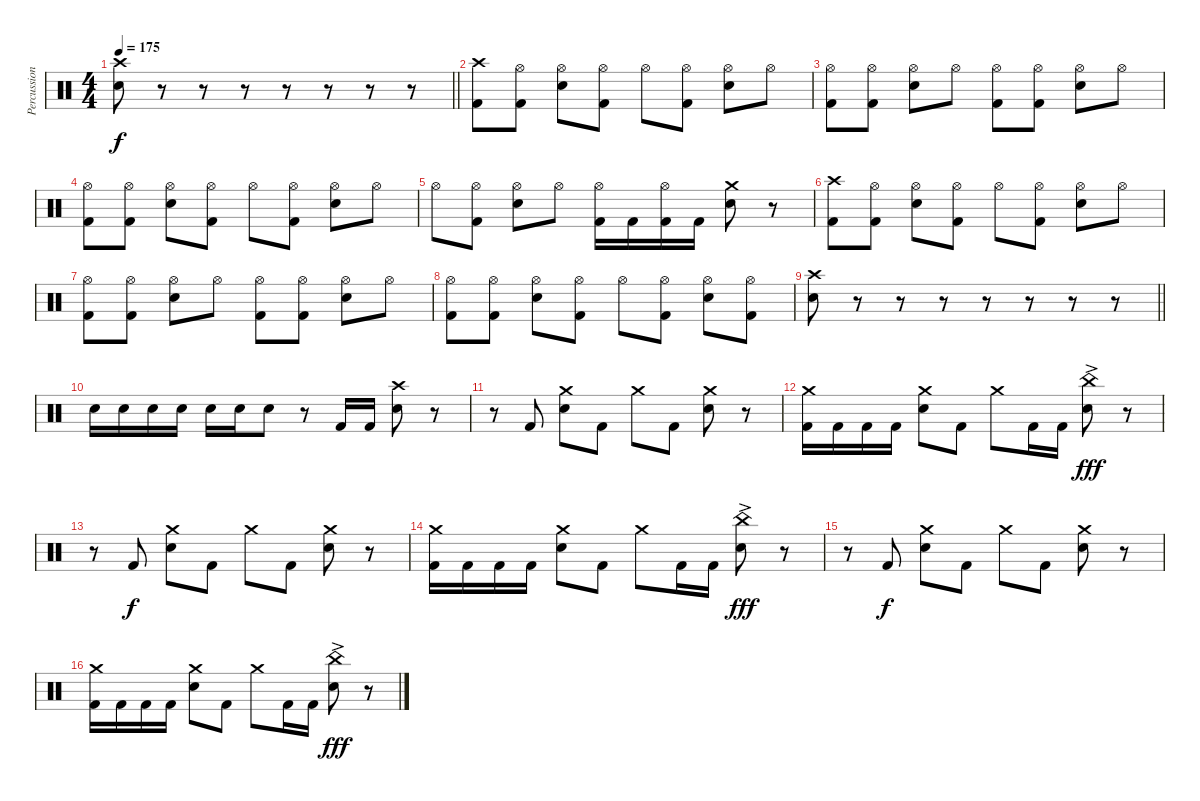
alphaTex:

\track ("Percussion (Moose)" "Percussion") {instrument percussion}
\staff {score}
\articulation defaults
\ts (4 4)
\tempo 175
\clef neutral
\barLineRight lightlight
\ks c
("Crash high (hit)" "Electric Snare (hit)").8{dy f} r.8 r.8 r.8 r.8 r.8 r.8 r.8 |
("Crash high (hit)" "Kick (hit) 2").8 ("Hi-Hat (open)" "Kick (hit) 2").8 ("Hi-Hat (open)" "Electric Snare (hit)").8 ("Hi-Hat (open)" "Kick (hit) 2").8 "Hi-Hat (open)".8 ("Hi-Hat (open)" "Kick (hit) 2").8 ("Hi-Hat (open)" "Electric Snare (hit)").8 "Hi-Hat (open)".8 |
("Hi-Hat (open)" "Kick (hit) 2").8 ("Hi-Hat (open)" "Kick (hit) 2").8 ("Hi-Hat (open)" "Electric Snare (hit)").8 "Hi-Hat (open)".8 ("Hi-Hat (open)" "Kick (hit) 2").8 ("Hi-Hat (open)" "Kick (hit) 2").8 ("Hi-Hat (open)" "Electric Snare (hit)").8 "Hi-Hat (open)".8 |
("Hi-Hat (open)" "Kick (hit) 2").8 ("Hi-Hat (open)" "Kick (hit) 2").8 ("Hi-Hat (open)" "Electric Snare (hit)").8 ("Hi-Hat (open)" "Kick (hit) 2").8 "Hi-Hat (open)".8 ("Hi-Hat (open)" "Kick (hit) 2").8 ("Hi-Hat (open)" "Electric Snare (hit)").8 "Hi-Hat (open)".8 |
"Hi-Hat (open)".8 ("Hi-Hat (open)" "Kick (hit) 2").8 ("Hi-Hat (open)" "Electric Snare (hit)").8 "Hi-Hat (open)".8 ("Hi-Hat (open)" "Kick (hit) 2").16 "Kick (hit) 2".16 ("Hi-Hat (open)" "Kick (hit) 2").16 "Kick (hit) 2".16 ("Crash medium (hit)" "Electric Snare (hit)").8 r.8 |
("Crash high (hit)" "Kick (hit) 2").8 ("Hi-Hat (open)" "Kick (hit) 2").8 ("Hi-Hat (open)" "Electric Snare (hit)").8 ("Hi-Hat (open)" "Kick (hit) 2").8 "Hi-Hat (open)".8 ("Hi-Hat (open)" "Kick (hit) 2").8 ("Hi-Hat (open)" "Electric Snare (hit)").8 "Hi-Hat (open)".8 |
("Hi-Hat (open)" "Kick (hit) 2").8 ("Hi-Hat (open)" "Kick (hit) 2").8 ("Hi-Hat (open)" "Electric Snare (hit)").8 "Hi-Hat (open)".8 ("Hi-Hat (open)" "Kick (hit) 2").8 ("Hi-Hat (open)" "Kick (hit) 2").8 ("Hi-Hat (open)" "Electric Snare (hit)").8 "Hi-Hat (open)".8 |
("Hi-Hat (open)" "Kick (hit) 2").8 ("Hi-Hat (open)" "Kick (hit) 2").8 ("Hi-Hat (open)" "Electric Snare (hit)").8 ("Hi-Hat (open)" "Kick (hit) 2").8 "Hi-Hat (open)".8 ("Hi-Hat (open)" "Kick (hit) 2").8 ("Hi-Hat (open)" "Electric Snare (hit)").8 ("Hi-Hat (open)" "Kick (hit) 2").8 |
\barLineRight lightlight
("Crash high (hit)" "Electric Snare (hit)").8 r.8 r.8 r.8 r.8 r.8 r.8 r.8 |
"Electric Snare (hit)".16 "Electric Snare (hit)".16 "Electric Snare (hit)".16 "Electric Snare (hit)".16 "Electric Snare (hit)".16 "Electric Snare (hit)".16 "Electric Snare (hit)".8 r.8 "Kick (hit) 2".16 "Kick (hit) 2".16 ("Crash high (hit)" "Electric Snare (hit)").8 r.8 |
r.8 "Kick (hit) 2".8 ("Crash medium (hit)" "Electric Snare (hit)").8 "Kick (hit) 2".8 "Crash medium (hit)".8 "Kick (hit) 2".8 ("Crash medium (hit)" "Electric Snare (hit)").8 r.8 |
("Crash medium (hit)" "Kick (hit) 2").16 "Kick (hit) 2".16 "Kick (hit) 2".16 "Kick (hit) 2".16 ("Crash medium (hit)" "Electric Snare (hit)").8 "Kick (hit) 2".8 "Crash medium (hit)".8 "Kick (hit) 2".16 "Kick (hit) 2".16 ("China (hit)"{ac} "Electric Snare (hit)").8{dy fff} r.8 |
r.8 "Kick (hit) 2".8{dy f} ("Crash medium (hit)" "Electric Snare (hit)").8 "Kick (hit) 2".8 "Crash medium (hit)".8 "Kick (hit) 2".8 ("Crash medium (hit)" "Electric Snare (hit)").8 r.8 |
("Crash medium (hit)" "Kick (hit) 2").16 "Kick (hit) 2".16 "Kick (hit) 2".16 "Kick (hit) 2".16 ("Crash medium (hit)" "Electric Snare (hit)").8 "Kick (hit) 2".8 "Crash medium (hit)".8 "Kick (hit) 2".16 "Kick (hit) 2".16 ("China (hit)"{ac} "Electric Snare (hit)").8{dy fff} r.8 |
r.8 "Kick (hit) 2".8{dy f} ("Crash medium (hit)" "Electric Snare (hit)").8 "Kick (hit) 2".8 "Crash medium (hit)".8 "Kick (hit) 2".8 ("Crash medium (hit)" "Electric Snare (hit)").8 r.8 |
("Crash medium (hit)" "Kick (hit) 2").16 "Kick (hit) 2".16 "Kick (hit) 2".16 "Kick (hit) 2".16 ("Crash medium (hit)" "Electric Snare (hit)").8 "Kick (hit) 2".8 "Crash medium (hit)".8 "Kick (hit) 2".16 "Kick (hit) 2".16 ("China (hit)"{ac} "Electric Snare (hit)").8{dy fff} r.8
